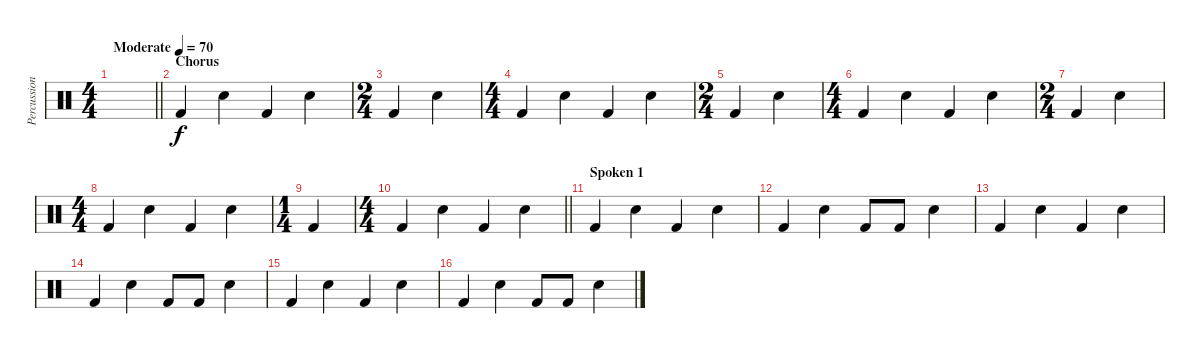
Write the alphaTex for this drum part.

\track ("Percussion" "Percussion") {instrument percussion}
\staff {score}
\articulation defaults
\ts (4 4)
\tempo (70 "Moderate")
\clef neutral
\barLineRight lightlight
\ks c
|
\section ("" "Chorus")
"Kick (hit) 2".4 "Snare (hit) 2".4 "Kick (hit) 2".4 "Snare (hit) 2".4 |
\ts (2 4)
"Kick (hit) 2".4 "Snare (hit) 2".4 |
\ts (4 4)
"Kick (hit) 2".4 "Snare (hit) 2".4 "Kick (hit) 2".4 "Snare (hit) 2".4 |
\ts (2 4)
"Kick (hit) 2".4 "Snare (hit) 2".4 |
\ts (4 4)
"Kick (hit) 2".4 "Snare (hit) 2".4 "Kick (hit) 2".4 "Snare (hit) 2".4 |
\ts (2 4)
"Kick (hit) 2".4 "Snare (hit) 2".4 |
\ts (4 4)
"Kick (hit) 2".4 "Snare (hit) 2".4 "Kick (hit) 2".4 "Snare (hit) 2".4 |
\ts (1 4)
"Kick (hit) 2".4 |
\ts (4 4)
\barLineRight lightlight "Kick (hit) 2".4 "Snare (hit) 2".4 "Kick (hit) 2".4 "Snare (hit) 2".4
|
\section ("" "Spoken 1")
"Kick (hit) 2".4 "Snare (hit) 2".4 "Kick (hit) 2".4 "Snare (hit) 2".4 |
"Kick (hit) 2".4 "Snare (hit) 2".4 "Kick (hit) 2".8 "Kick (hit) 2".8 "Snare (hit) 2".4 |
"Kick (hit) 2".4 "Snare (hit) 2".4 "Kick (hit) 2".4 "Snare (hit) 2".4 |
"Kick (hit) 2".4 "Snare (hit) 2".4 "Kick (hit) 2".8 "Kick (hit) 2".8 "Snare (hit) 2".4 |
"Kick (hit) 2".4 "Snare (hit) 2".4 "Kick (hit) 2".4 "Snare (hit) 2".4 |
"Kick (hit) 2".4 "Snare (hit) 2".4 "Kick (hit) 2".8 "Kick (hit) 2".8 "Snare (hit) 2".4
